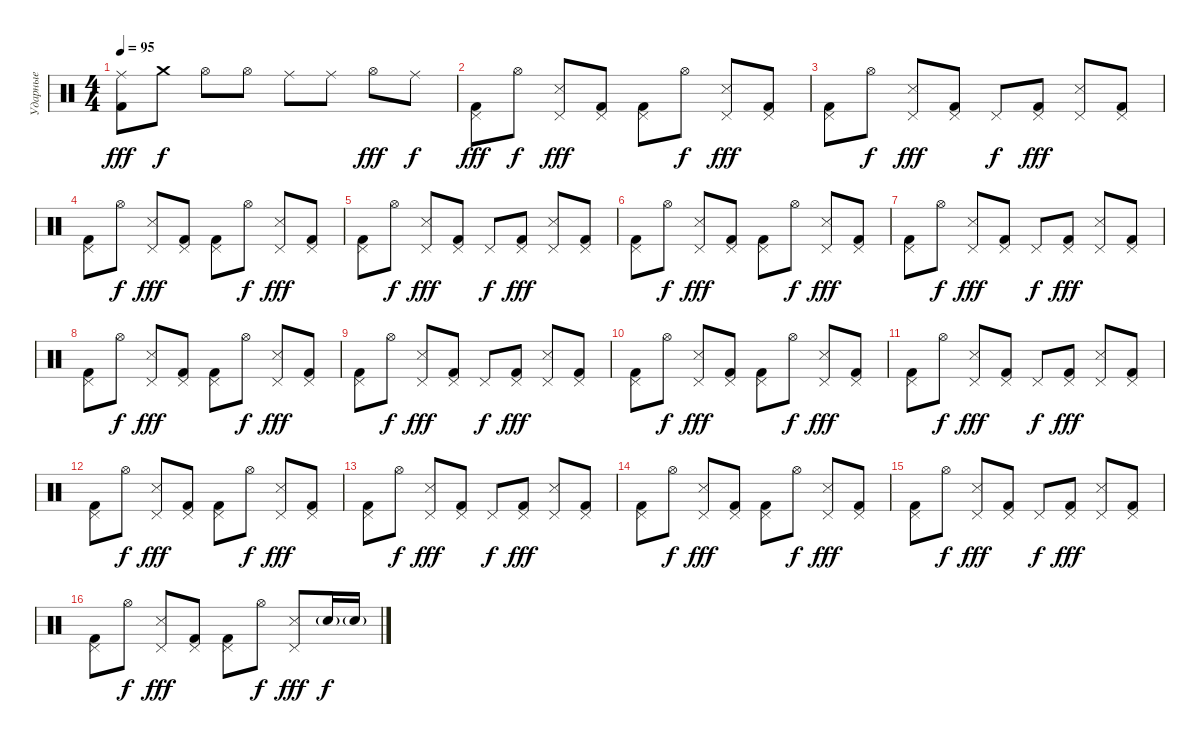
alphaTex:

\track ("Ударные" "Ударные") {instrument percussion}
\staff {score}
\articulation defaults
\ts (4 4)
\tempo 95
\clef neutral
\ks c
("Ride (middle)" "Kick (hit) 2").8{dy fff} "Crash medium (hit)".8{dy f} "Hi-Hat (open)".8 "Hi-Hat (open)".8 "Ride (middle)".8 "Ride (middle)".8 "Hi-Hat (open)".8{dy fff} "Ride (middle)".8{dy f} |
("Pedal Hi-Hat (hit)" "Kick (hit) 2").8{dy fff} "Hi-Hat (open)".8{dy f} ("Pedal Hi-Hat (hit)" "Snare (side stick) 3").8{dy fff} ("Pedal Hi-Hat (hit)" "Kick (hit) 2").8 ("Pedal Hi-Hat (hit)" "Kick (hit) 2").8 "Hi-Hat (open)".8{dy f} ("Pedal Hi-Hat (hit)" "Snare (side stick) 3").8{dy fff} ("Pedal Hi-Hat (hit)" "Kick (hit) 2").8 |
("Pedal Hi-Hat (hit)" "Kick (hit) 2").8 "Hi-Hat (open)".8{dy f} ("Pedal Hi-Hat (hit)" "Snare (side stick) 3").8{dy fff} ("Pedal Hi-Hat (hit)" "Kick (hit) 2").8 "Pedal Hi-Hat (hit)".8{dy f} ("Pedal Hi-Hat (hit)" "Kick (hit) 2").8{dy fff} ("Pedal Hi-Hat (hit)" "Snare (side stick) 3").8 ("Pedal Hi-Hat (hit)" "Kick (hit) 2").8 |
("Pedal Hi-Hat (hit)" "Kick (hit) 2").8 "Hi-Hat (open)".8{dy f} ("Pedal Hi-Hat (hit)" "Snare (side stick) 3").8{dy fff} ("Pedal Hi-Hat (hit)" "Kick (hit) 2").8 ("Pedal Hi-Hat (hit)" "Kick (hit) 2").8 "Hi-Hat (open)".8{dy f} ("Pedal Hi-Hat (hit)" "Snare (side stick) 3").8{dy fff} ("Pedal Hi-Hat (hit)" "Kick (hit) 2").8 |
("Pedal Hi-Hat (hit)" "Kick (hit) 2").8 "Hi-Hat (open)".8{dy f} ("Pedal Hi-Hat (hit)" "Snare (side stick) 3").8{dy fff} ("Pedal Hi-Hat (hit)" "Kick (hit) 2").8 "Pedal Hi-Hat (hit)".8{dy f} ("Pedal Hi-Hat (hit)" "Kick (hit) 2").8{dy fff} ("Pedal Hi-Hat (hit)" "Snare (side stick) 3").8 ("Pedal Hi-Hat (hit)" "Kick (hit) 2").8 |
("Pedal Hi-Hat (hit)" "Kick (hit) 2").8 "Hi-Hat (open)".8{dy f} ("Pedal Hi-Hat (hit)" "Snare (side stick) 3").8{dy fff} ("Pedal Hi-Hat (hit)" "Kick (hit) 2").8 ("Pedal Hi-Hat (hit)" "Kick (hit) 2").8 "Hi-Hat (open)".8{dy f} ("Pedal Hi-Hat (hit)" "Snare (side stick) 3").8{dy fff} ("Pedal Hi-Hat (hit)" "Kick (hit) 2").8 |
("Pedal Hi-Hat (hit)" "Kick (hit) 2").8 "Hi-Hat (open)".8{dy f} ("Pedal Hi-Hat (hit)" "Snare (side stick) 3").8{dy fff} ("Pedal Hi-Hat (hit)" "Kick (hit) 2").8 "Pedal Hi-Hat (hit)".8{dy f} ("Pedal Hi-Hat (hit)" "Kick (hit) 2").8{dy fff} ("Pedal Hi-Hat (hit)" "Snare (side stick) 3").8 ("Pedal Hi-Hat (hit)" "Kick (hit) 2").8 |
("Pedal Hi-Hat (hit)" "Kick (hit) 2").8 "Hi-Hat (open)".8{dy f} ("Pedal Hi-Hat (hit)" "Snare (side stick) 3").8{dy fff} ("Pedal Hi-Hat (hit)" "Kick (hit) 2").8 ("Pedal Hi-Hat (hit)" "Kick (hit) 2").8 "Hi-Hat (open)".8{dy f} ("Pedal Hi-Hat (hit)" "Snare (side stick) 3").8{dy fff} ("Pedal Hi-Hat (hit)" "Kick (hit) 2").8 |
("Pedal Hi-Hat (hit)" "Kick (hit) 2").8 "Hi-Hat (open)".8{dy f} ("Pedal Hi-Hat (hit)" "Snare (side stick) 3").8{dy fff} ("Pedal Hi-Hat (hit)" "Kick (hit) 2").8 "Pedal Hi-Hat (hit)".8{dy f} ("Pedal Hi-Hat (hit)" "Kick (hit) 2").8{dy fff} ("Pedal Hi-Hat (hit)" "Snare (side stick) 3").8 ("Pedal Hi-Hat (hit)" "Kick (hit) 2").8 |
("Pedal Hi-Hat (hit)" "Kick (hit) 2").8 "Hi-Hat (open)".8{dy f} ("Pedal Hi-Hat (hit)" "Snare (side stick) 3").8{dy fff} ("Pedal Hi-Hat (hit)" "Kick (hit) 2").8 ("Pedal Hi-Hat (hit)" "Kick (hit) 2").8 "Hi-Hat (open)".8{dy f} ("Pedal Hi-Hat (hit)" "Snare (side stick) 3").8{dy fff} ("Pedal Hi-Hat (hit)" "Kick (hit) 2").8 |
("Pedal Hi-Hat (hit)" "Kick (hit) 2").8 "Hi-Hat (open)".8{dy f} ("Pedal Hi-Hat (hit)" "Snare (side stick) 3").8{dy fff} ("Pedal Hi-Hat (hit)" "Kick (hit) 2").8 "Pedal Hi-Hat (hit)".8{dy f} ("Pedal Hi-Hat (hit)" "Kick (hit) 2").8{dy fff} ("Pedal Hi-Hat (hit)" "Snare (side stick) 3").8 ("Pedal Hi-Hat (hit)" "Kick (hit) 2").8 |
("Pedal Hi-Hat (hit)" "Kick (hit) 2").8 "Hi-Hat (open)".8{dy f} ("Pedal Hi-Hat (hit)" "Snare (side stick) 3").8{dy fff} ("Pedal Hi-Hat (hit)" "Kick (hit) 2").8 ("Pedal Hi-Hat (hit)" "Kick (hit) 2").8 "Hi-Hat (open)".8{dy f} ("Pedal Hi-Hat (hit)" "Snare (side stick) 3").8{dy fff} ("Pedal Hi-Hat (hit)" "Kick (hit) 2").8 |
("Pedal Hi-Hat (hit)" "Kick (hit) 2").8 "Hi-Hat (open)".8{dy f} ("Pedal Hi-Hat (hit)" "Snare (side stick) 3").8{dy fff} ("Pedal Hi-Hat (hit)" "Kick (hit) 2").8 "Pedal Hi-Hat (hit)".8{dy f} ("Pedal Hi-Hat (hit)" "Kick (hit) 2").8{dy fff} ("Pedal Hi-Hat (hit)" "Snare (side stick) 3").8 ("Pedal Hi-Hat (hit)" "Kick (hit) 2").8 |
("Pedal Hi-Hat (hit)" "Kick (hit) 2").8 "Hi-Hat (open)".8{dy f} ("Pedal Hi-Hat (hit)" "Snare (side stick) 3").8{dy fff} ("Pedal Hi-Hat (hit)" "Kick (hit) 2").8 ("Pedal Hi-Hat (hit)" "Kick (hit) 2").8 "Hi-Hat (open)".8{dy f} ("Pedal Hi-Hat (hit)" "Snare (side stick) 3").8{dy fff} ("Pedal Hi-Hat (hit)" "Kick (hit) 2").8 |
("Pedal Hi-Hat (hit)" "Kick (hit) 2").8 "Hi-Hat (open)".8{dy f} ("Pedal Hi-Hat (hit)" "Snare (side stick) 3").8{dy fff} ("Pedal Hi-Hat (hit)" "Kick (hit) 2").8 "Pedal Hi-Hat (hit)".8{dy f} ("Pedal Hi-Hat (hit)" "Kick (hit) 2").8{dy fff} ("Pedal Hi-Hat (hit)" "Snare (side stick) 3").8 ("Pedal Hi-Hat (hit)" "Kick (hit) 2").8 |
("Pedal Hi-Hat (hit)" "Kick (hit) 2").8 "Hi-Hat (open)".8{dy f} ("Pedal Hi-Hat (hit)" "Snare (side stick) 3").8{dy fff} ("Pedal Hi-Hat (hit)" "Kick (hit) 2").8 ("Pedal Hi-Hat (hit)" "Kick (hit) 2").8 "Hi-Hat (open)".8{dy f} ("Pedal Hi-Hat (hit)" "Snare (side stick) 3").8{dy fff} "Electric Snare (hit)"{g}.16{dy f} "Electric Snare (hit)"{g}.16
